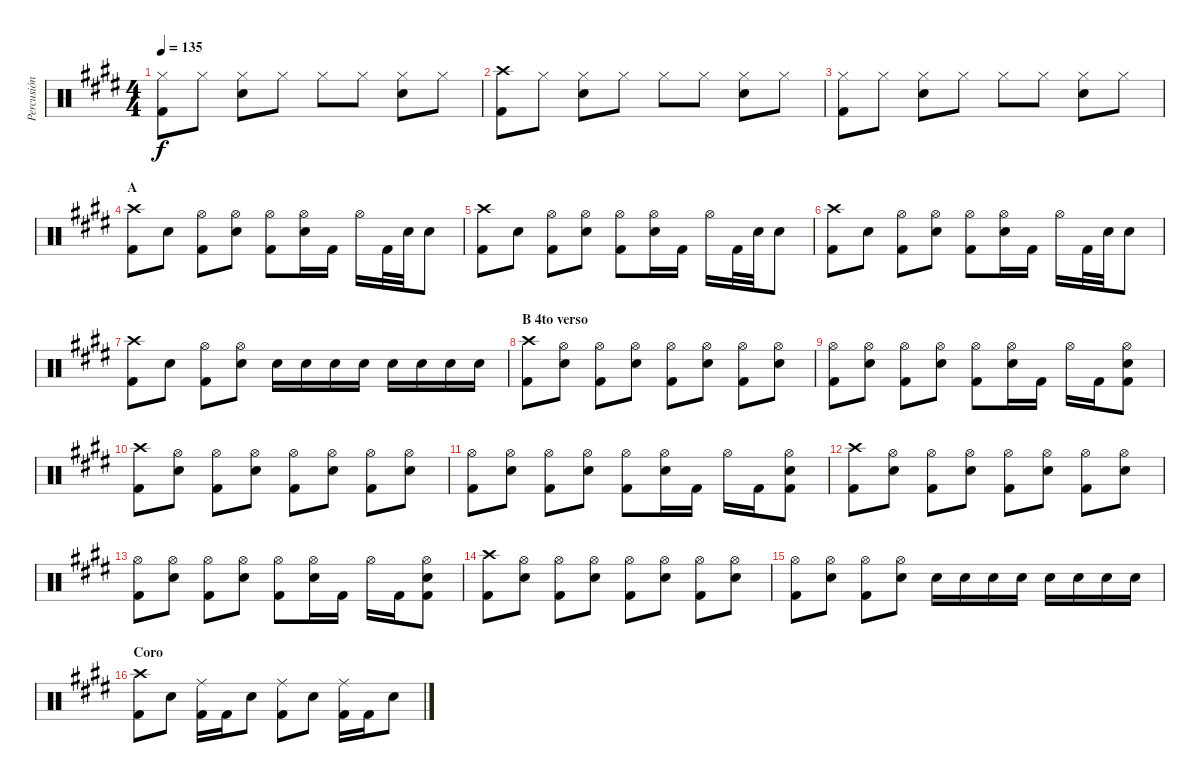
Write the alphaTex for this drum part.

\track ("Percusión" "Percusión") {instrument percussion}
\staff {score}
\articulation defaults
\ts (4 4)
\tempo 135
\clef neutral
\ks e
("Hi-Hat (closed)" "Kick (hit) 2").8{dy f} "Hi-Hat (closed)".8 ("Hi-Hat (closed)" "Electric Snare (hit)").8 "Hi-Hat (closed)".8 "Hi-Hat (closed)".8 "Hi-Hat (closed)".8 ("Hi-Hat (closed)" "Electric Snare (hit)").8 "Hi-Hat (closed)".8 |
("Crash high (hit)" "Kick (hit) 2").8 "Hi-Hat (closed)".8 ("Hi-Hat (closed)" "Electric Snare (hit)").8 "Hi-Hat (closed)".8 "Hi-Hat (closed)".8 "Hi-Hat (closed)".8 ("Hi-Hat (closed)" "Electric Snare (hit)").8 "Hi-Hat (closed)".8 |
("Hi-Hat (closed)" "Kick (hit) 2").8 "Hi-Hat (closed)".8 ("Hi-Hat (closed)" "Electric Snare (hit)").8 "Hi-Hat (closed)".8 "Hi-Hat (closed)".8 "Hi-Hat (closed)".8 ("Hi-Hat (closed)" "Electric Snare (hit)").8 "Hi-Hat (closed)".8 |
\section ("" "A")
("Crash high (hit)" "Kick (hit) 2").8 "Electric Snare (hit)".8 ("Hi-Hat (open)" "Kick (hit) 2").8 ("Hi-Hat (open)" "Electric Snare (hit)").8 ("Hi-Hat (open)" "Kick (hit) 2").8 ("Hi-Hat (open)" "Electric Snare (hit)").16 "Kick (hit) 2".16 "Hi-Hat (open)".16 "Kick (hit) 2".32 "Electric Snare (hit)".32 "Electric Snare (hit)".8 |
("Crash high (hit)" "Kick (hit) 2").8 "Electric Snare (hit)".8 ("Hi-Hat (open)" "Kick (hit) 2").8 ("Hi-Hat (open)" "Electric Snare (hit)").8 ("Hi-Hat (open)" "Kick (hit) 2").8 ("Hi-Hat (open)" "Electric Snare (hit)").16 "Kick (hit) 2".16 "Hi-Hat (open)".16 "Kick (hit) 2".32 "Electric Snare (hit)".32 "Electric Snare (hit)".8 |
("Crash high (hit)" "Kick (hit) 2").8 "Electric Snare (hit)".8 ("Hi-Hat (open)" "Kick (hit) 2").8 ("Hi-Hat (open)" "Electric Snare (hit)").8 ("Hi-Hat (open)" "Kick (hit) 2").8 ("Hi-Hat (open)" "Electric Snare (hit)").16 "Kick (hit) 2".16 "Hi-Hat (open)".16 "Kick (hit) 2".32 "Electric Snare (hit)".32 "Electric Snare (hit)".8 |
("Crash high (hit)" "Kick (hit) 2").8 "Electric Snare (hit)".8 ("Hi-Hat (open)" "Kick (hit) 2").8 ("Hi-Hat (open)" "Electric Snare (hit)").8 "Electric Snare (hit)".16 "Electric Snare (hit)".16 "Electric Snare (hit)".16 "Electric Snare (hit)".16 "Electric Snare (hit)".16 "Electric Snare (hit)".16 "Electric Snare (hit)".16 "Electric Snare (hit)".16 |
\section ("" "B 4to verso")
("Crash high (hit)" "Kick (hit) 2").8 ("Hi-Hat (open)" "Electric Snare (hit)").8 ("Hi-Hat (open)" "Kick (hit) 2").8 ("Hi-Hat (open)" "Electric Snare (hit)").8 ("Hi-Hat (open)" "Kick (hit) 2").8 ("Hi-Hat (open)" "Electric Snare (hit)").8 ("Hi-Hat (open)" "Kick (hit) 2").8 ("Hi-Hat (open)" "Electric Snare (hit)").8 |
("Hi-Hat (open)" "Kick (hit) 2").8 ("Hi-Hat (open)" "Electric Snare (hit)").8 ("Hi-Hat (open)" "Kick (hit) 2").8 ("Hi-Hat (open)" "Electric Snare (hit)").8 ("Hi-Hat (open)" "Kick (hit) 2").8 ("Hi-Hat (open)" "Electric Snare (hit)").16 "Kick (hit) 2".16 "Hi-Hat (open)".16 "Kick (hit) 2".16 ("Hi-Hat (open)" "Electric Snare (hit)" "Kick (hit) 2").8 |
("Crash high (hit)" "Kick (hit) 2").8 ("Hi-Hat (open)" "Electric Snare (hit)").8 ("Hi-Hat (open)" "Kick (hit) 2").8 ("Hi-Hat (open)" "Electric Snare (hit)").8 ("Hi-Hat (open)" "Kick (hit) 2").8 ("Hi-Hat (open)" "Electric Snare (hit)").8 ("Hi-Hat (open)" "Kick (hit) 2").8 ("Hi-Hat (open)" "Electric Snare (hit)").8 |
("Hi-Hat (open)" "Kick (hit) 2").8 ("Hi-Hat (open)" "Electric Snare (hit)").8 ("Hi-Hat (open)" "Kick (hit) 2").8 ("Hi-Hat (open)" "Electric Snare (hit)").8 ("Hi-Hat (open)" "Kick (hit) 2").8 ("Hi-Hat (open)" "Electric Snare (hit)").16 "Kick (hit) 2".16 "Hi-Hat (open)".16 "Kick (hit) 2".16 ("Hi-Hat (open)" "Electric Snare (hit)" "Kick (hit) 2").8 |
("Crash high (hit)" "Kick (hit) 2").8 ("Hi-Hat (open)" "Electric Snare (hit)").8 ("Hi-Hat (open)" "Kick (hit) 2").8 ("Hi-Hat (open)" "Electric Snare (hit)").8 ("Hi-Hat (open)" "Kick (hit) 2").8 ("Hi-Hat (open)" "Electric Snare (hit)").8 ("Hi-Hat (open)" "Kick (hit) 2").8 ("Hi-Hat (open)" "Electric Snare (hit)").8 |
("Hi-Hat (open)" "Kick (hit) 2").8 ("Hi-Hat (open)" "Electric Snare (hit)").8 ("Hi-Hat (open)" "Kick (hit) 2").8 ("Hi-Hat (open)" "Electric Snare (hit)").8 ("Hi-Hat (open)" "Kick (hit) 2").8 ("Hi-Hat (open)" "Electric Snare (hit)").16 "Kick (hit) 2".16 "Hi-Hat (open)".16 "Kick (hit) 2".16 ("Hi-Hat (open)" "Electric Snare (hit)" "Kick (hit) 2").8 |
("Crash high (hit)" "Kick (hit) 2").8 ("Hi-Hat (open)" "Electric Snare (hit)").8 ("Hi-Hat (open)" "Kick (hit) 2").8 ("Hi-Hat (open)" "Electric Snare (hit)").8 ("Hi-Hat (open)" "Kick (hit) 2").8 ("Hi-Hat (open)" "Electric Snare (hit)").8 ("Hi-Hat (open)" "Kick (hit) 2").8 ("Hi-Hat (open)" "Electric Snare (hit)").8 |
("Hi-Hat (open)" "Kick (hit) 2").8 ("Hi-Hat (open)" "Electric Snare (hit)").8 ("Hi-Hat (open)" "Kick (hit) 2").8 ("Hi-Hat (open)" "Electric Snare (hit)").8 "Electric Snare (hit)".16 "Electric Snare (hit)".16 "Electric Snare (hit)".16 "Electric Snare (hit)".16 "Electric Snare (hit)".16 "Electric Snare (hit)".16 "Electric Snare (hit)".16 "Electric Snare (hit)".16 |
\section ("" "Coro")
("Crash high (hit)" "Kick (hit) 2").8 "Electric Snare (hit)".8 ("Ride (middle)" "Kick (hit) 2").16 "Kick (hit) 2".16 "Electric Snare (hit)".8 ("Ride (middle)" "Kick (hit) 2").8 "Electric Snare (hit)".8 ("Ride (middle)" "Kick (hit) 2").16 "Kick (hit) 2".16 "Electric Snare (hit)".8
